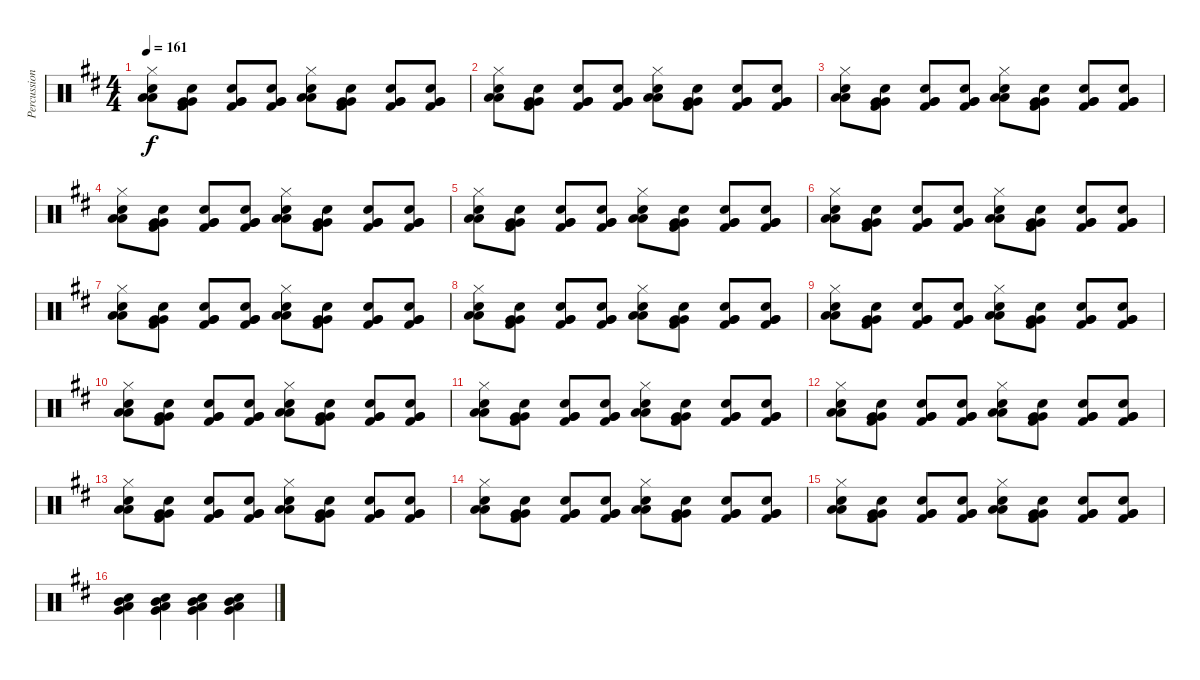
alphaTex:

\track ("Percussion" "Percussion") {instrument percussion}
\staff {score}
\articulation defaults
\ts (4 4)
\tempo 161
\clef neutral
\ks d
("Hi-Hat (closed)" "Low Floor Tom (hit)" "Low Floor Tom (hit)" "Electric Snare (hit)").8{dy f} ("Snare (hit) 2" "Kick (hit) 2" "Very Low Tom (hit)" "Very Low Tom (hit)").8 ("Snare (hit) 2" "Kick (hit) 2" "Very Low Tom (hit)" "Very Low Tom (hit)").8 ("Snare (hit) 2" "Kick (hit) 2" "Very Low Tom (hit)" "Very Low Tom (hit)").8 ("Hi-Hat (closed)" "Low Tom (hit)" "Low Tom (hit)" "Electric Snare (hit)").8 ("Snare (hit) 2" "Kick (hit) 2" "Very Low Tom (hit)" "Very Low Tom (hit)").8 ("Snare (hit) 2" "Kick (hit) 2" "Very Low Tom (hit)" "Very Low Tom (hit)").8 ("Snare (hit) 2" "Kick (hit) 2" "Very Low Tom (hit)" "Very Low Tom (hit)").8 |
("Hi-Hat (closed)" "Low Floor Tom (hit)" "Low Floor Tom (hit)" "Electric Snare (hit)").8 ("Snare (hit) 2" "Kick (hit) 2" "Very Low Tom (hit)" "Very Low Tom (hit)").8 ("Snare (hit) 2" "Kick (hit) 2" "Very Low Tom (hit)" "Very Low Tom (hit)").8 ("Snare (hit) 2" "Kick (hit) 2" "Very Low Tom (hit)" "Very Low Tom (hit)").8 ("Hi-Hat (closed)" "Low Tom (hit)" "Low Tom (hit)" "Electric Snare (hit)").8 ("Snare (hit) 2" "Kick (hit) 2" "Very Low Tom (hit)" "Very Low Tom (hit)").8 ("Snare (hit) 2" "Kick (hit) 2" "Very Low Tom (hit)" "Very Low Tom (hit)").8 ("Snare (hit) 2" "Kick (hit) 2" "Very Low Tom (hit)" "Very Low Tom (hit)").8 |
("Hi-Hat (closed)" "Low Floor Tom (hit)" "Low Floor Tom (hit)" "Electric Snare (hit)").8 ("Snare (hit) 2" "Kick (hit) 2" "Very Low Tom (hit)" "Very Low Tom (hit)").8 ("Snare (hit) 2" "Kick (hit) 2" "Very Low Tom (hit)" "Very Low Tom (hit)").8 ("Snare (hit) 2" "Kick (hit) 2" "Very Low Tom (hit)" "Very Low Tom (hit)").8 ("Hi-Hat (closed)" "Low Tom (hit)" "Low Tom (hit)" "Electric Snare (hit)").8 ("Snare (hit) 2" "Kick (hit) 2" "Very Low Tom (hit)" "Very Low Tom (hit)").8 ("Snare (hit) 2" "Kick (hit) 2" "Very Low Tom (hit)" "Very Low Tom (hit)").8 ("Snare (hit) 2" "Kick (hit) 2" "Very Low Tom (hit)" "Very Low Tom (hit)").8 |
("Hi-Hat (closed)" "Low Floor Tom (hit)" "Low Floor Tom (hit)" "Electric Snare (hit)").8 ("Snare (hit) 2" "Kick (hit) 2" "Very Low Tom (hit)" "Very Low Tom (hit)").8 ("Snare (hit) 2" "Kick (hit) 2" "Very Low Tom (hit)" "Very Low Tom (hit)").8 ("Snare (hit) 2" "Kick (hit) 2" "Very Low Tom (hit)" "Very Low Tom (hit)").8 ("Hi-Hat (closed)" "Low Tom (hit)" "Low Tom (hit)" "Electric Snare (hit)").8 ("Snare (hit) 2" "Kick (hit) 2" "Very Low Tom (hit)" "Very Low Tom (hit)").8 ("Snare (hit) 2" "Kick (hit) 2" "Very Low Tom (hit)" "Very Low Tom (hit)").8 ("Snare (hit) 2" "Kick (hit) 2" "Very Low Tom (hit)" "Very Low Tom (hit)").8 |
("Hi-Hat (closed)" "Low Floor Tom (hit)" "Low Floor Tom (hit)" "Electric Snare (hit)").8 ("Snare (hit) 2" "Kick (hit) 2" "Very Low Tom (hit)" "Very Low Tom (hit)").8 ("Snare (hit) 2" "Kick (hit) 2" "Very Low Tom (hit)" "Very Low Tom (hit)").8 ("Snare (hit) 2" "Kick (hit) 2" "Very Low Tom (hit)" "Very Low Tom (hit)").8 ("Hi-Hat (closed)" "Low Tom (hit)" "Low Tom (hit)" "Electric Snare (hit)").8 ("Snare (hit) 2" "Kick (hit) 2" "Very Low Tom (hit)" "Very Low Tom (hit)").8 ("Snare (hit) 2" "Kick (hit) 2" "Very Low Tom (hit)" "Very Low Tom (hit)").8 ("Snare (hit) 2" "Kick (hit) 2" "Very Low Tom (hit)" "Very Low Tom (hit)").8 |
("Hi-Hat (closed)" "Low Floor Tom (hit)" "Low Floor Tom (hit)" "Electric Snare (hit)").8 ("Snare (hit) 2" "Kick (hit) 2" "Very Low Tom (hit)" "Very Low Tom (hit)").8 ("Snare (hit) 2" "Kick (hit) 2" "Very Low Tom (hit)" "Very Low Tom (hit)").8 ("Snare (hit) 2" "Kick (hit) 2" "Very Low Tom (hit)" "Very Low Tom (hit)").8 ("Hi-Hat (closed)" "Low Tom (hit)" "Low Tom (hit)" "Electric Snare (hit)").8 ("Snare (hit) 2" "Kick (hit) 2" "Very Low Tom (hit)" "Very Low Tom (hit)").8 ("Snare (hit) 2" "Kick (hit) 2" "Very Low Tom (hit)" "Very Low Tom (hit)").8 ("Snare (hit) 2" "Kick (hit) 2" "Very Low Tom (hit)" "Very Low Tom (hit)").8 |
("Hi-Hat (closed)" "Low Floor Tom (hit)" "Low Floor Tom (hit)" "Electric Snare (hit)").8 ("Snare (hit) 2" "Kick (hit) 2" "Very Low Tom (hit)" "Very Low Tom (hit)").8 ("Snare (hit) 2" "Kick (hit) 2" "Very Low Tom (hit)" "Very Low Tom (hit)").8 ("Snare (hit) 2" "Kick (hit) 2" "Very Low Tom (hit)" "Very Low Tom (hit)").8 ("Hi-Hat (closed)" "Low Tom (hit)" "Low Tom (hit)" "Electric Snare (hit)").8 ("Snare (hit) 2" "Kick (hit) 2" "Very Low Tom (hit)" "Very Low Tom (hit)").8 ("Snare (hit) 2" "Kick (hit) 2" "Very Low Tom (hit)" "Very Low Tom (hit)").8 ("Snare (hit) 2" "Kick (hit) 2" "Very Low Tom (hit)" "Very Low Tom (hit)").8 |
("Hi-Hat (closed)" "Low Floor Tom (hit)" "Low Floor Tom (hit)" "Electric Snare (hit)").8 ("Snare (hit) 2" "Kick (hit) 2" "Very Low Tom (hit)" "Very Low Tom (hit)").8 ("Snare (hit) 2" "Kick (hit) 2" "Very Low Tom (hit)" "Very Low Tom (hit)").8 ("Snare (hit) 2" "Kick (hit) 2" "Very Low Tom (hit)" "Very Low Tom (hit)").8 ("Hi-Hat (closed)" "Low Tom (hit)" "Low Tom (hit)" "Electric Snare (hit)").8 ("Snare (hit) 2" "Kick (hit) 2" "Very Low Tom (hit)" "Very Low Tom (hit)").8 ("Snare (hit) 2" "Kick (hit) 2" "Very Low Tom (hit)" "Very Low Tom (hit)").8 ("Snare (hit) 2" "Kick (hit) 2" "Very Low Tom (hit)" "Very Low Tom (hit)").8 |
("Hi-Hat (closed)" "Low Floor Tom (hit)" "Low Floor Tom (hit)" "Electric Snare (hit)").8 ("Snare (hit) 2" "Kick (hit) 2" "Very Low Tom (hit)" "Very Low Tom (hit)").8 ("Snare (hit) 2" "Kick (hit) 2" "Very Low Tom (hit)" "Very Low Tom (hit)").8 ("Snare (hit) 2" "Kick (hit) 2" "Very Low Tom (hit)" "Very Low Tom (hit)").8 ("Hi-Hat (closed)" "Low Tom (hit)" "Low Tom (hit)" "Electric Snare (hit)").8 ("Snare (hit) 2" "Kick (hit) 2" "Very Low Tom (hit)" "Very Low Tom (hit)").8 ("Snare (hit) 2" "Kick (hit) 2" "Very Low Tom (hit)" "Very Low Tom (hit)").8 ("Snare (hit) 2" "Kick (hit) 2" "Very Low Tom (hit)" "Very Low Tom (hit)").8 |
("Hi-Hat (closed)" "Low Floor Tom (hit)" "Low Floor Tom (hit)" "Electric Snare (hit)").8 ("Snare (hit) 2" "Kick (hit) 2" "Very Low Tom (hit)" "Very Low Tom (hit)").8 ("Snare (hit) 2" "Kick (hit) 2" "Very Low Tom (hit)" "Very Low Tom (hit)").8 ("Snare (hit) 2" "Kick (hit) 2" "Very Low Tom (hit)" "Very Low Tom (hit)").8 ("Hi-Hat (closed)" "Low Tom (hit)" "Low Tom (hit)" "Electric Snare (hit)").8 ("Snare (hit) 2" "Kick (hit) 2" "Very Low Tom (hit)" "Very Low Tom (hit)").8 ("Snare (hit) 2" "Kick (hit) 2" "Very Low Tom (hit)" "Very Low Tom (hit)").8 ("Snare (hit) 2" "Kick (hit) 2" "Very Low Tom (hit)" "Very Low Tom (hit)").8 |
("Hi-Hat (closed)" "Low Floor Tom (hit)" "Low Floor Tom (hit)" "Electric Snare (hit)").8 ("Snare (hit) 2" "Kick (hit) 2" "Very Low Tom (hit)" "Very Low Tom (hit)").8 ("Snare (hit) 2" "Kick (hit) 2" "Very Low Tom (hit)" "Very Low Tom (hit)").8 ("Snare (hit) 2" "Kick (hit) 2" "Very Low Tom (hit)" "Very Low Tom (hit)").8 ("Hi-Hat (closed)" "Low Tom (hit)" "Low Tom (hit)" "Electric Snare (hit)").8 ("Snare (hit) 2" "Kick (hit) 2" "Very Low Tom (hit)" "Very Low Tom (hit)").8 ("Snare (hit) 2" "Kick (hit) 2" "Very Low Tom (hit)" "Very Low Tom (hit)").8 ("Snare (hit) 2" "Kick (hit) 2" "Very Low Tom (hit)" "Very Low Tom (hit)").8 |
("Hi-Hat (closed)" "Low Floor Tom (hit)" "Low Floor Tom (hit)" "Electric Snare (hit)").8 ("Snare (hit) 2" "Kick (hit) 2" "Very Low Tom (hit)" "Very Low Tom (hit)").8 ("Snare (hit) 2" "Kick (hit) 2" "Very Low Tom (hit)" "Very Low Tom (hit)").8 ("Snare (hit) 2" "Kick (hit) 2" "Very Low Tom (hit)" "Very Low Tom (hit)").8 ("Hi-Hat (closed)" "Low Tom (hit)" "Low Tom (hit)" "Electric Snare (hit)").8 ("Snare (hit) 2" "Kick (hit) 2" "Very Low Tom (hit)" "Very Low Tom (hit)").8 ("Snare (hit) 2" "Kick (hit) 2" "Very Low Tom (hit)" "Very Low Tom (hit)").8 ("Snare (hit) 2" "Kick (hit) 2" "Very Low Tom (hit)" "Very Low Tom (hit)").8 |
("Hi-Hat (closed)" "Low Floor Tom (hit)" "Low Floor Tom (hit)" "Electric Snare (hit)").8 ("Snare (hit) 2" "Kick (hit) 2" "Very Low Tom (hit)" "Very Low Tom (hit)").8 ("Snare (hit) 2" "Kick (hit) 2" "Very Low Tom (hit)" "Very Low Tom (hit)").8 ("Snare (hit) 2" "Kick (hit) 2" "Very Low Tom (hit)" "Very Low Tom (hit)").8 ("Hi-Hat (closed)" "Low Tom (hit)" "Low Tom (hit)" "Electric Snare (hit)").8 ("Snare (hit) 2" "Kick (hit) 2" "Very Low Tom (hit)" "Very Low Tom (hit)").8 ("Snare (hit) 2" "Kick (hit) 2" "Very Low Tom (hit)" "Very Low Tom (hit)").8 ("Snare (hit) 2" "Kick (hit) 2" "Very Low Tom (hit)" "Very Low Tom (hit)").8 |
("Hi-Hat (closed)" "Low Floor Tom (hit)" "Low Floor Tom (hit)" "Electric Snare (hit)").8 ("Snare (hit) 2" "Kick (hit) 2" "Very Low Tom (hit)" "Very Low Tom (hit)").8 ("Snare (hit) 2" "Kick (hit) 2" "Very Low Tom (hit)" "Very Low Tom (hit)").8 ("Snare (hit) 2" "Kick (hit) 2" "Very Low Tom (hit)" "Very Low Tom (hit)").8 ("Hi-Hat (closed)" "Low Tom (hit)" "Low Tom (hit)" "Electric Snare (hit)").8 ("Snare (hit) 2" "Kick (hit) 2" "Very Low Tom (hit)" "Very Low Tom (hit)").8 ("Snare (hit) 2" "Kick (hit) 2" "Very Low Tom (hit)" "Very Low Tom (hit)").8 ("Snare (hit) 2" "Kick (hit) 2" "Very Low Tom (hit)" "Very Low Tom (hit)").8 |
("Hi-Hat (closed)" "Low Floor Tom (hit)" "Low Floor Tom (hit)" "Electric Snare (hit)").8 ("Snare (hit) 2" "Kick (hit) 2" "Very Low Tom (hit)" "Very Low Tom (hit)").8 ("Snare (hit) 2" "Kick (hit) 2" "Very Low Tom (hit)" "Very Low Tom (hit)").8 ("Snare (hit) 2" "Kick (hit) 2" "Very Low Tom (hit)" "Very Low Tom (hit)").8 ("Hi-Hat (closed)" "Low Tom (hit)" "Low Tom (hit)" "Electric Snare (hit)").8 ("Snare (hit) 2" "Kick (hit) 2" "Very Low Tom (hit)" "Very Low Tom (hit)").8 ("Snare (hit) 2" "Kick (hit) 2" "Very Low Tom (hit)" "Very Low Tom (hit)").8 ("Snare (hit) 2" "Kick (hit) 2" "Very Low Tom (hit)" "Very Low Tom (hit)").8 |
("Low Tom (hit)" "Mid Tom (hit)" "Electric Snare (hit)" "Very Low Tom (hit)").4 ("Low Tom (hit)" "Mid Tom (hit)" "Electric Snare (hit)" "Very Low Tom (hit)").4 ("Low Tom (hit)" "Mid Tom (hit)" "Electric Snare (hit)" "Very Low Tom (hit)").4 ("Low Tom (hit)" "Mid Tom (hit)" "Electric Snare (hit)" "Very Low Tom (hit)").4
